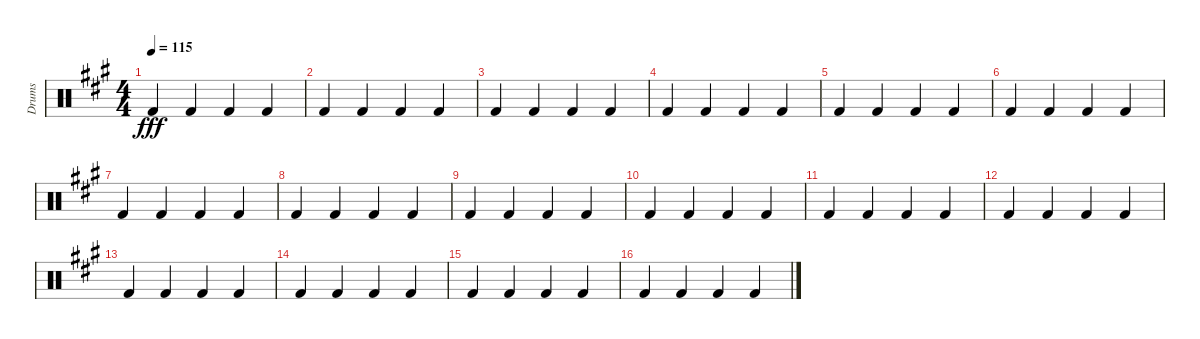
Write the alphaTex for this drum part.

\track ("Drums" "Drums") {instrument percussion}
\staff {score}
\articulation defaults
\ts (4 4)
\tempo 115
\clef neutral
\ks a "Kick (hit) 2".4{dy fff} "Kick (hit) 2".4 "Kick (hit) 2".4 "Kick (hit) 2".4
|
"Kick (hit) 2".4 "Kick (hit) 2".4 "Kick (hit) 2".4 "Kick (hit) 2".4 |
"Kick (hit) 2".4 "Kick (hit) 2".4 "Kick (hit) 2".4 "Kick (hit) 2".4 |
"Kick (hit) 2".4 "Kick (hit) 2".4 "Kick (hit) 2".4 "Kick (hit) 2".4 |
"Kick (hit) 2".4 "Kick (hit) 2".4 "Kick (hit) 2".4 "Kick (hit) 2".4 |
"Kick (hit) 2".4 "Kick (hit) 2".4 "Kick (hit) 2".4 "Kick (hit) 2".4 |
"Kick (hit) 2".4 "Kick (hit) 2".4 "Kick (hit) 2".4 "Kick (hit) 2".4 |
"Kick (hit) 2".4 "Kick (hit) 2".4 "Kick (hit) 2".4 "Kick (hit) 2".4 |
"Kick (hit) 2".4 "Kick (hit) 2".4 "Kick (hit) 2".4 "Kick (hit) 2".4 |
"Kick (hit) 2".4 "Kick (hit) 2".4 "Kick (hit) 2".4 "Kick (hit) 2".4 |
"Kick (hit) 2".4 "Kick (hit) 2".4 "Kick (hit) 2".4 "Kick (hit) 2".4 |
"Kick (hit) 2".4 "Kick (hit) 2".4 "Kick (hit) 2".4 "Kick (hit) 2".4 |
"Kick (hit) 2".4 "Kick (hit) 2".4 "Kick (hit) 2".4 "Kick (hit) 2".4 |
"Kick (hit) 2".4 "Kick (hit) 2".4 "Kick (hit) 2".4 "Kick (hit) 2".4 |
"Kick (hit) 2".4 "Kick (hit) 2".4 "Kick (hit) 2".4 "Kick (hit) 2".4 |
"Kick (hit) 2".4 "Kick (hit) 2".4 "Kick (hit) 2".4 "Kick (hit) 2".4
